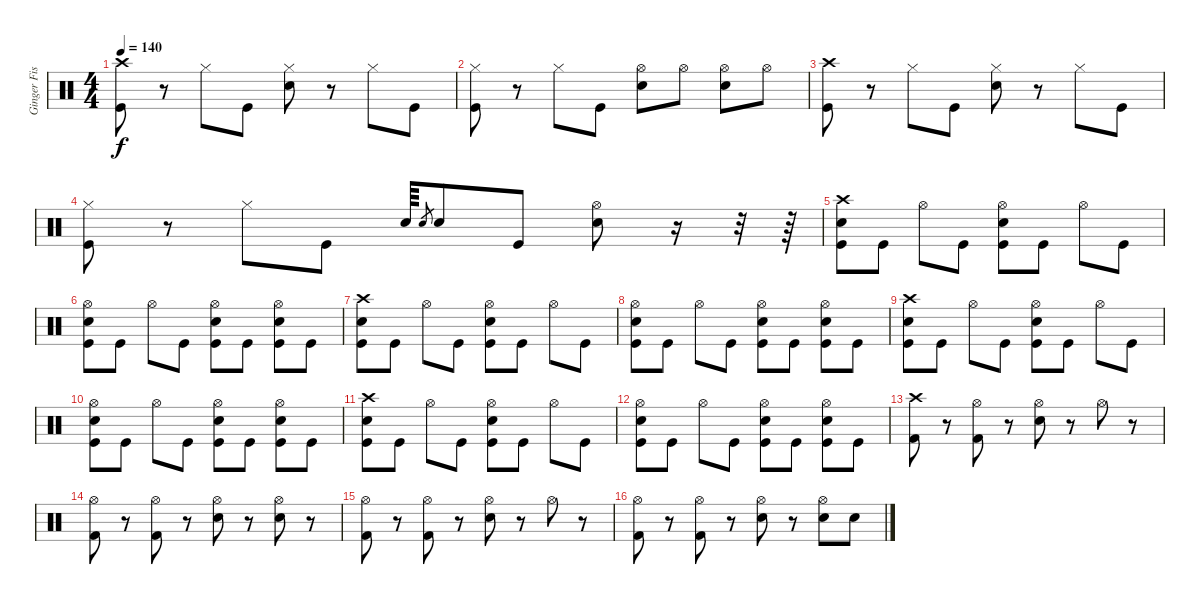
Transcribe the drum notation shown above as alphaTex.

\track ("Ginger Fish" "Ginger Fis") {instrument percussion}
\staff {score}
\articulation defaults
\ts (4 4)
\tempo 140
\clef neutral
\ks c
("Crash high (hit)" "Kick (hit)").8{dy f} r.8 "Hi-Hat (closed)".8 "Kick (hit)".8 ("Hi-Hat (closed)" "Electric Snare (hit)").8 r.8 "Hi-Hat (closed)".8 "Kick (hit)".8 |
("Hi-Hat (closed)" "Kick (hit)").8 r.8 "Hi-Hat (closed)".8 "Kick (hit)".8 ("Hi-Hat (open)" "Electric Snare (hit)").8 "Hi-Hat (open)".8 ("Hi-Hat (open)" "Electric Snare (hit)").8 "Hi-Hat (open)".8 |
("Crash high (hit)" "Kick (hit)").8 r.8 "Hi-Hat (closed)".8 "Kick (hit)".8 ("Hi-Hat (closed)" "Electric Snare (hit)").8 r.8 "Hi-Hat (closed)".8 "Kick (hit)".8 |
("Hi-Hat (closed)" "Kick (hit)").8 r.8 "Hi-Hat (closed)".8 "Kick (hit)".8 "Electric Snare (hit)".64 "Electric Snare (hit)".8{gr} "Electric Snare (hit)".8 "Kick (hit)".8 ("Hi-Hat (open)" "Electric Snare (hit)").8 r.16 r.32 r.64 |
("Crash high (hit)" "Electric Snare (hit)" "Kick (hit)").8 "Kick (hit)".8 "Hi-Hat (open)".8 "Kick (hit)".8 ("Hi-Hat (open)" "Electric Snare (hit)" "Kick (hit)").8 "Kick (hit)".8 "Hi-Hat (open)".8 "Kick (hit)".8 |
("Hi-Hat (open)" "Electric Snare (hit)" "Kick (hit)").8 "Kick (hit)".8 "Hi-Hat (open)".8 "Kick (hit)".8 ("Hi-Hat (open)" "Electric Snare (hit)" "Kick (hit)").8 "Kick (hit)".8 ("Hi-Hat (open)" "Electric Snare (hit)" "Kick (hit)").8 "Kick (hit)".8 |
("Crash high (hit)" "Electric Snare (hit)" "Kick (hit)").8 "Kick (hit)".8 "Hi-Hat (open)".8 "Kick (hit)".8 ("Hi-Hat (open)" "Electric Snare (hit)" "Kick (hit)").8 "Kick (hit)".8 "Hi-Hat (open)".8 "Kick (hit)".8 |
("Hi-Hat (open)" "Electric Snare (hit)" "Kick (hit)").8 "Kick (hit)".8 "Hi-Hat (open)".8 "Kick (hit)".8 ("Hi-Hat (open)" "Electric Snare (hit)" "Kick (hit)").8 "Kick (hit)".8 ("Hi-Hat (open)" "Electric Snare (hit)" "Kick (hit)").8 "Kick (hit)".8 |
("Crash high (hit)" "Electric Snare (hit)" "Kick (hit)").8 "Kick (hit)".8 "Hi-Hat (open)".8 "Kick (hit)".8 ("Hi-Hat (open)" "Electric Snare (hit)" "Kick (hit)").8 "Kick (hit)".8 "Hi-Hat (open)".8 "Kick (hit)".8 |
("Hi-Hat (open)" "Electric Snare (hit)" "Kick (hit)").8 "Kick (hit)".8 "Hi-Hat (open)".8 "Kick (hit)".8 ("Hi-Hat (open)" "Electric Snare (hit)" "Kick (hit)").8 "Kick (hit)".8 ("Hi-Hat (open)" "Electric Snare (hit)" "Kick (hit)").8 "Kick (hit)".8 |
("Crash high (hit)" "Electric Snare (hit)" "Kick (hit)").8 "Kick (hit)".8 "Hi-Hat (open)".8 "Kick (hit)".8 ("Hi-Hat (open)" "Electric Snare (hit)" "Kick (hit)").8 "Kick (hit)".8 "Hi-Hat (open)".8 "Kick (hit)".8 |
("Hi-Hat (open)" "Electric Snare (hit)" "Kick (hit)").8 "Kick (hit)".8 "Hi-Hat (open)".8 "Kick (hit)".8 ("Hi-Hat (open)" "Electric Snare (hit)" "Kick (hit)").8 "Kick (hit)".8 ("Hi-Hat (open)" "Electric Snare (hit)" "Kick (hit)").8 "Kick (hit)".8 |
("Crash high (hit)" "Kick (hit) 2").8 r.8 ("Hi-Hat (open)" "Kick (hit) 2").8 r.8 ("Hi-Hat (open)" "Electric Snare (hit)").8 r.8 "Hi-Hat (open)".8 r.8 |
("Hi-Hat (open)" "Kick (hit) 2").8 r.8 ("Hi-Hat (open)" "Kick (hit) 2").8 r.8 ("Hi-Hat (open)" "Electric Snare (hit)").8 r.8 ("Hi-Hat (open)" "Electric Snare (hit)").8 r.8 |
("Hi-Hat (open)" "Kick (hit) 2").8 r.8 ("Hi-Hat (open)" "Kick (hit) 2").8 r.8 ("Hi-Hat (open)" "Electric Snare (hit)").8 r.8 "Hi-Hat (open)".8 r.8 |
("Hi-Hat (open)" "Kick (hit) 2").8 r.8 ("Hi-Hat (open)" "Kick (hit) 2").8 r.8 ("Hi-Hat (open)" "Electric Snare (hit)").8 r.8 ("Hi-Hat (open)" "Electric Snare (hit)").8 "Electric Snare (hit)".8
